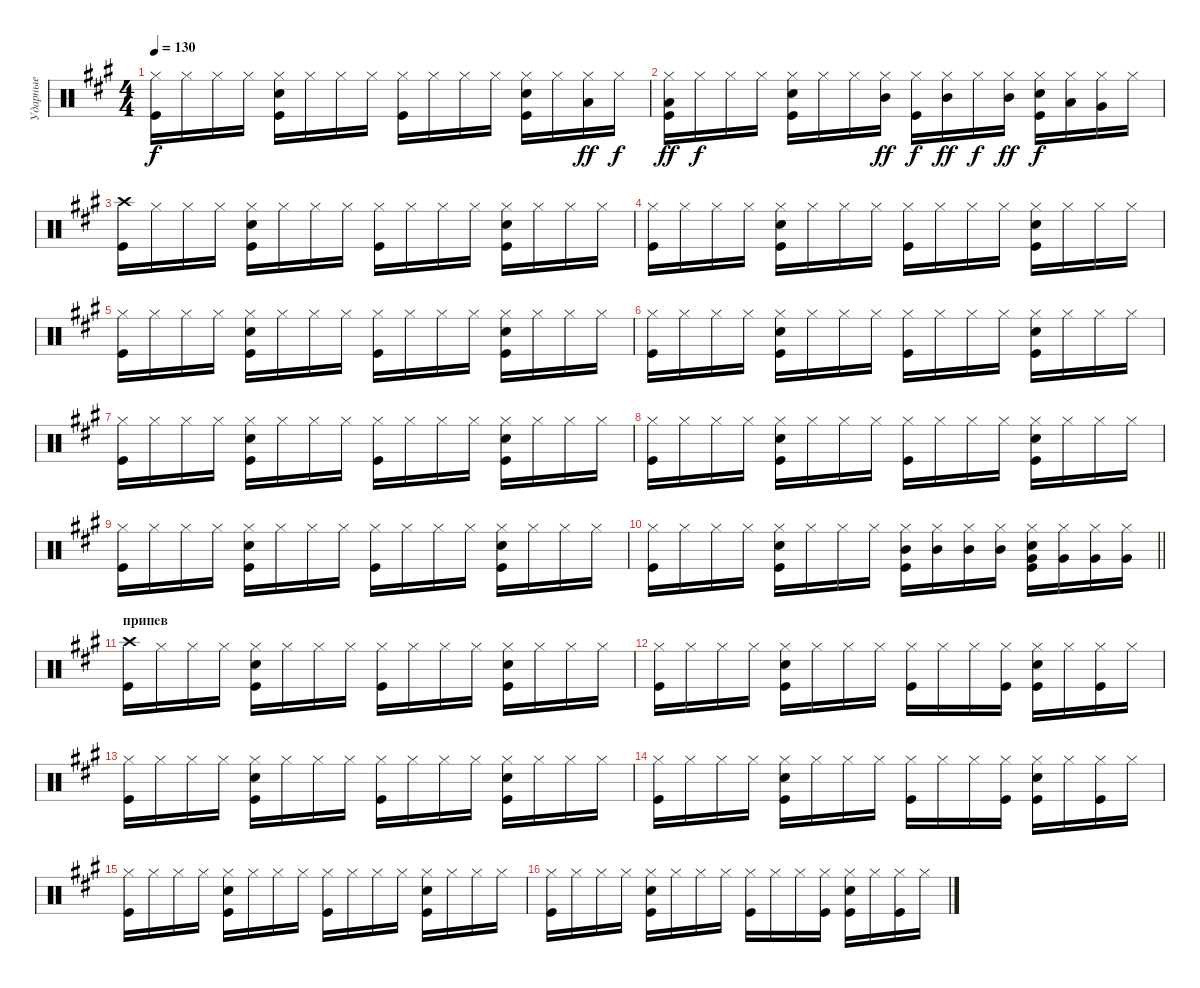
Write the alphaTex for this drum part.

\track ("Ударные" "Ударные") {instrument percussion}
\staff {score}
\articulation defaults
\ts (4 4)
\tempo 130
\clef neutral
\ks f#minor
("Hi-Hat (closed)" "Kick (hit)").16{dy f} "Hi-Hat (closed)".16 "Hi-Hat (closed)".16 "Hi-Hat (closed)".16 ("Hi-Hat (closed)" "Snare (hit) 2" "Kick (hit)").16 "Hi-Hat (closed)".16 "Hi-Hat (closed)".16 "Hi-Hat (closed)".16 ("Hi-Hat (closed)" "Kick (hit)").16 "Hi-Hat (closed)".16 "Hi-Hat (closed)".16 "Hi-Hat (closed)".16 ("Hi-Hat (closed)" "Snare (hit) 2" "Kick (hit)").16 "Hi-Hat (closed)".16 ("Hi-Hat (closed)" "Low Floor Tom (hit)").16{dy ff} "Hi-Hat (closed)".16{dy f} |
("Hi-Hat (closed)" "Kick (hit)" "Low Floor Tom (hit)").16{dy ff} "Hi-Hat (closed)".16{dy f} "Hi-Hat (closed)".16 "Hi-Hat (closed)".16 ("Hi-Hat (closed)" "Snare (hit) 2" "Kick (hit)").16 "Hi-Hat (closed)".16 "Hi-Hat (closed)".16 ("Mid Tom (hit)" "Hi-Hat (closed)").16{dy ff} ("Hi-Hat (closed)" "Kick (hit)").16{dy f} ("Mid Tom (hit)" "Hi-Hat (closed)").16{dy ff} "Hi-Hat (closed)".16{dy f} ("Mid Tom (hit)" "Hi-Hat (closed)").16{dy ff} ("Hi-Hat (closed)" "Snare (hit) 2" "Kick (hit)").16{dy f} ("Hi-Hat (closed)" "Low Tom (hit)").16 ("Very Low Tom (hit)" "Hi-Hat (closed)").16 "Hi-Hat (closed)".16 |
("Kick (hit)" "Crash high (hit)").16 "Hi-Hat (closed)".16 "Hi-Hat (closed)".16 "Hi-Hat (closed)".16 ("Hi-Hat (closed)" "Snare (hit) 2" "Kick (hit)").16 "Hi-Hat (closed)".16 "Hi-Hat (closed)".16 "Hi-Hat (closed)".16 ("Hi-Hat (closed)" "Kick (hit)").16 "Hi-Hat (closed)".16 "Hi-Hat (closed)".16 "Hi-Hat (closed)".16 ("Hi-Hat (closed)" "Snare (hit) 2" "Kick (hit)").16 "Hi-Hat (closed)".16 "Hi-Hat (closed)".16 "Hi-Hat (closed)".16 |
("Hi-Hat (closed)" "Kick (hit)").16 "Hi-Hat (closed)".16 "Hi-Hat (closed)".16 "Hi-Hat (closed)".16 ("Hi-Hat (closed)" "Snare (hit) 2" "Kick (hit)").16 "Hi-Hat (closed)".16 "Hi-Hat (closed)".16 "Hi-Hat (closed)".16 ("Hi-Hat (closed)" "Kick (hit)").16 "Hi-Hat (closed)".16 "Hi-Hat (closed)".16 "Hi-Hat (closed)".16 ("Hi-Hat (closed)" "Snare (hit) 2" "Kick (hit)").16 "Hi-Hat (closed)".16 "Hi-Hat (closed)".16 "Hi-Hat (closed)".16 |
("Hi-Hat (closed)" "Kick (hit)").16 "Hi-Hat (closed)".16 "Hi-Hat (closed)".16 "Hi-Hat (closed)".16 ("Hi-Hat (closed)" "Snare (hit) 2" "Kick (hit)").16 "Hi-Hat (closed)".16 "Hi-Hat (closed)".16 "Hi-Hat (closed)".16 ("Hi-Hat (closed)" "Kick (hit)").16 "Hi-Hat (closed)".16 "Hi-Hat (closed)".16 "Hi-Hat (closed)".16 ("Hi-Hat (closed)" "Snare (hit) 2" "Kick (hit)").16 "Hi-Hat (closed)".16 "Hi-Hat (closed)".16 "Hi-Hat (closed)".16 |
("Hi-Hat (closed)" "Kick (hit)").16 "Hi-Hat (closed)".16 "Hi-Hat (closed)".16 "Hi-Hat (closed)".16 ("Hi-Hat (closed)" "Snare (hit) 2" "Kick (hit)").16 "Hi-Hat (closed)".16 "Hi-Hat (closed)".16 "Hi-Hat (closed)".16 ("Hi-Hat (closed)" "Kick (hit)").16 "Hi-Hat (closed)".16 "Hi-Hat (closed)".16 "Hi-Hat (closed)".16 ("Hi-Hat (closed)" "Snare (hit) 2" "Kick (hit)").16 "Hi-Hat (closed)".16 "Hi-Hat (closed)".16 "Hi-Hat (closed)".16 |
("Hi-Hat (closed)" "Kick (hit)").16 "Hi-Hat (closed)".16 "Hi-Hat (closed)".16 "Hi-Hat (closed)".16 ("Hi-Hat (closed)" "Snare (hit) 2" "Kick (hit)").16 "Hi-Hat (closed)".16 "Hi-Hat (closed)".16 "Hi-Hat (closed)".16 ("Hi-Hat (closed)" "Kick (hit)").16 "Hi-Hat (closed)".16 "Hi-Hat (closed)".16 "Hi-Hat (closed)".16 ("Hi-Hat (closed)" "Snare (hit) 2" "Kick (hit)").16 "Hi-Hat (closed)".16 "Hi-Hat (closed)".16 "Hi-Hat (closed)".16 |
("Hi-Hat (closed)" "Kick (hit)").16 "Hi-Hat (closed)".16 "Hi-Hat (closed)".16 "Hi-Hat (closed)".16 ("Hi-Hat (closed)" "Snare (hit) 2" "Kick (hit)").16 "Hi-Hat (closed)".16 "Hi-Hat (closed)".16 "Hi-Hat (closed)".16 ("Hi-Hat (closed)" "Kick (hit)").16 "Hi-Hat (closed)".16 "Hi-Hat (closed)".16 "Hi-Hat (closed)".16 ("Hi-Hat (closed)" "Snare (hit) 2" "Kick (hit)").16 "Hi-Hat (closed)".16 "Hi-Hat (closed)".16 "Hi-Hat (closed)".16 |
("Hi-Hat (closed)" "Kick (hit)").16 "Hi-Hat (closed)".16 "Hi-Hat (closed)".16 "Hi-Hat (closed)".16 ("Hi-Hat (closed)" "Snare (hit) 2" "Kick (hit)").16 "Hi-Hat (closed)".16 "Hi-Hat (closed)".16 "Hi-Hat (closed)".16 ("Hi-Hat (closed)" "Kick (hit)").16 "Hi-Hat (closed)".16 "Hi-Hat (closed)".16 "Hi-Hat (closed)".16 ("Hi-Hat (closed)" "Snare (hit) 2" "Kick (hit)").16 "Hi-Hat (closed)".16 "Hi-Hat (closed)".16 "Hi-Hat (closed)".16 |
\barLineRight lightlight
("Hi-Hat (closed)" "Kick (hit)").16 "Hi-Hat (closed)".16 "Hi-Hat (closed)".16 "Hi-Hat (closed)".16 ("Hi-Hat (closed)" "Snare (hit) 2" "Kick (hit)").16 "Hi-Hat (closed)".16 "Hi-Hat (closed)".16 "Hi-Hat (closed)".16 ("Mid Tom (hit)" "Hi-Hat (closed)" "Kick (hit)").16 ("Mid Tom (hit)" "Hi-Hat (closed)").16 ("Mid Tom (hit)" "Hi-Hat (closed)").16 ("Mid Tom (hit)" "Hi-Hat (closed)").16 ("Very Low Tom (hit)" "Hi-Hat (closed)" "Snare (hit) 2" "Kick (hit)").16 ("Very Low Tom (hit)" "Hi-Hat (closed)").16 ("Very Low Tom (hit)" "Hi-Hat (closed)").16 ("Very Low Tom (hit)" "Hi-Hat (closed)").16 |
\section ("" "припев")
("Kick (hit)" "Crash high (hit)").16 "Hi-Hat (closed)".16 "Hi-Hat (closed)".16 "Hi-Hat (closed)".16 ("Hi-Hat (closed)" "Snare (hit) 2" "Kick (hit)").16 "Hi-Hat (closed)".16 "Hi-Hat (closed)".16 "Hi-Hat (closed)".16 ("Hi-Hat (closed)" "Kick (hit)").16 "Hi-Hat (closed)".16 "Hi-Hat (closed)".16 "Hi-Hat (closed)".16 ("Hi-Hat (closed)" "Snare (hit) 2" "Kick (hit)").16 "Hi-Hat (closed)".16 "Hi-Hat (closed)".16 "Hi-Hat (closed)".16 |
("Hi-Hat (closed)" "Kick (hit)").16 "Hi-Hat (closed)".16 "Hi-Hat (closed)".16 "Hi-Hat (closed)".16 ("Hi-Hat (closed)" "Snare (hit) 2" "Kick (hit)").16 "Hi-Hat (closed)".16 "Hi-Hat (closed)".16 "Hi-Hat (closed)".16 ("Hi-Hat (closed)" "Kick (hit)").16 "Hi-Hat (closed)".16 "Hi-Hat (closed)".16 ("Hi-Hat (closed)" "Kick (hit)").16 ("Hi-Hat (closed)" "Snare (hit) 2" "Kick (hit)").16 "Hi-Hat (closed)".16 ("Hi-Hat (closed)" "Kick (hit)").16 "Hi-Hat (closed)".16 |
("Hi-Hat (closed)" "Kick (hit)").16 "Hi-Hat (closed)".16 "Hi-Hat (closed)".16 "Hi-Hat (closed)".16 ("Hi-Hat (closed)" "Snare (hit) 2" "Kick (hit)").16 "Hi-Hat (closed)".16 "Hi-Hat (closed)".16 "Hi-Hat (closed)".16 ("Hi-Hat (closed)" "Kick (hit)").16 "Hi-Hat (closed)".16 "Hi-Hat (closed)".16 "Hi-Hat (closed)".16 ("Hi-Hat (closed)" "Snare (hit) 2" "Kick (hit)").16 "Hi-Hat (closed)".16 "Hi-Hat (closed)".16 "Hi-Hat (closed)".16 |
("Hi-Hat (closed)" "Kick (hit)").16 "Hi-Hat (closed)".16 "Hi-Hat (closed)".16 "Hi-Hat (closed)".16 ("Hi-Hat (closed)" "Snare (hit) 2" "Kick (hit)").16 "Hi-Hat (closed)".16 "Hi-Hat (closed)".16 "Hi-Hat (closed)".16 ("Hi-Hat (closed)" "Kick (hit)").16 "Hi-Hat (closed)".16 "Hi-Hat (closed)".16 ("Hi-Hat (closed)" "Kick (hit)").16 ("Hi-Hat (closed)" "Snare (hit) 2" "Kick (hit)").16 "Hi-Hat (closed)".16 ("Hi-Hat (closed)" "Kick (hit)").16 "Hi-Hat (closed)".16 |
("Hi-Hat (closed)" "Kick (hit)").16 "Hi-Hat (closed)".16 "Hi-Hat (closed)".16 "Hi-Hat (closed)".16 ("Hi-Hat (closed)" "Snare (hit) 2" "Kick (hit)").16 "Hi-Hat (closed)".16 "Hi-Hat (closed)".16 "Hi-Hat (closed)".16 ("Hi-Hat (closed)" "Kick (hit)").16 "Hi-Hat (closed)".16 "Hi-Hat (closed)".16 "Hi-Hat (closed)".16 ("Hi-Hat (closed)" "Snare (hit) 2" "Kick (hit)").16 "Hi-Hat (closed)".16 "Hi-Hat (closed)".16 "Hi-Hat (closed)".16 |
("Hi-Hat (closed)" "Kick (hit)").16 "Hi-Hat (closed)".16 "Hi-Hat (closed)".16 "Hi-Hat (closed)".16 ("Hi-Hat (closed)" "Snare (hit) 2" "Kick (hit)").16 "Hi-Hat (closed)".16 "Hi-Hat (closed)".16 "Hi-Hat (closed)".16 ("Hi-Hat (closed)" "Kick (hit)").16 "Hi-Hat (closed)".16 "Hi-Hat (closed)".16 ("Hi-Hat (closed)" "Kick (hit)").16 ("Hi-Hat (closed)" "Snare (hit) 2" "Kick (hit)").16 "Hi-Hat (closed)".16 ("Hi-Hat (closed)" "Kick (hit)").16 "Hi-Hat (closed)".16
